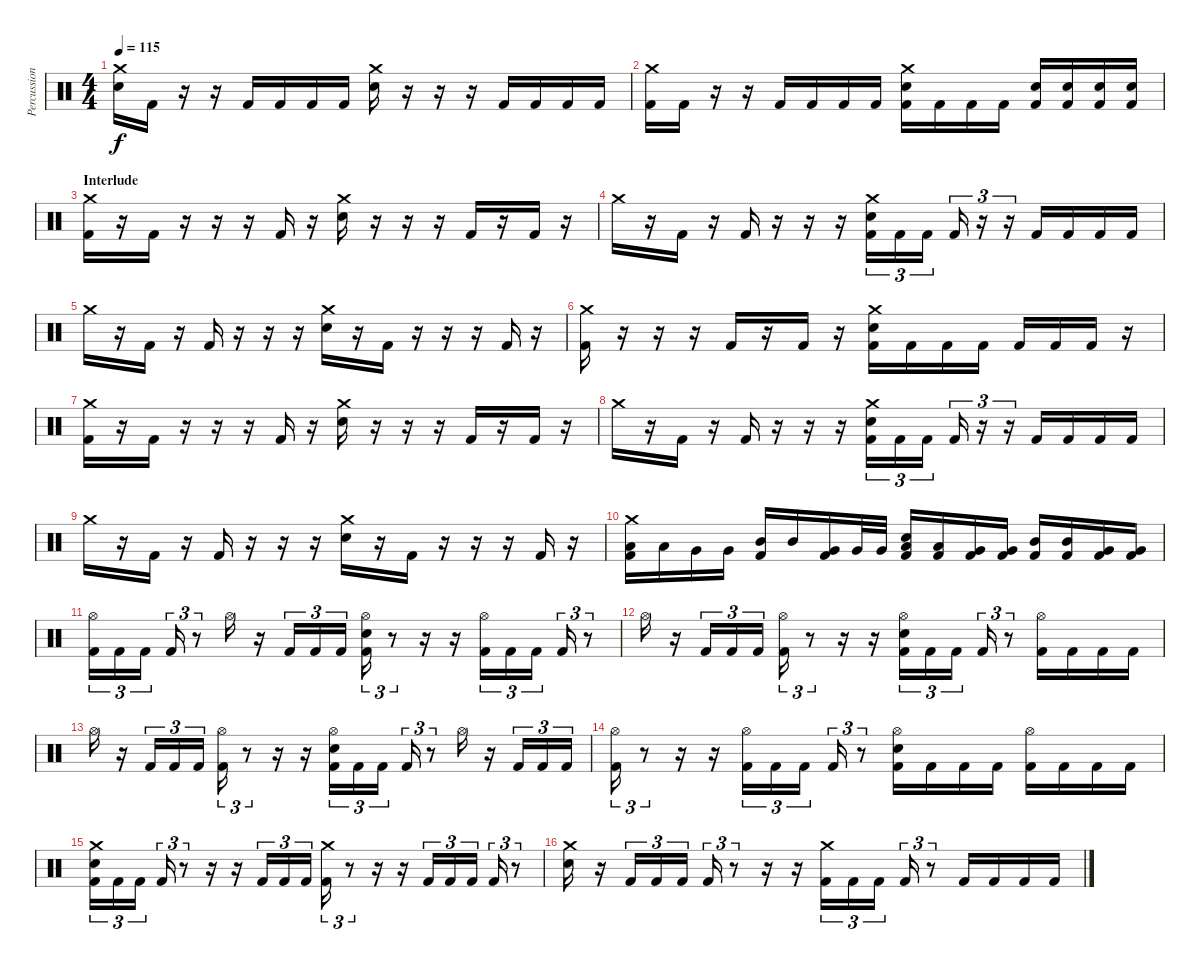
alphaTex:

\track ("Percussion" "Percussion") {instrument percussion}
\staff {score}
\articulation defaults
\ts (4 4)
\tempo 115
\clef neutral
\ks c
("Crash medium (hit)" "Electric Snare (hit)").16{dy f} "Kick (hit) 2".16 r.16 r.16 "Kick (hit) 2".16 "Kick (hit) 2".16 "Kick (hit) 2".16 "Kick (hit) 2".16 ("Crash medium (hit)" "Electric Snare (hit)").16 r.16 r.16 r.16 "Kick (hit) 2".16 "Kick (hit) 2".16 "Kick (hit) 2".16 "Kick (hit) 2".16 |
("Crash medium (hit)" "Kick (hit) 2").16 "Kick (hit) 2".16 r.16 r.16 "Kick (hit) 2".16 "Kick (hit) 2".16 "Kick (hit) 2".16 "Kick (hit) 2".16 ("Crash medium (hit)" "Electric Snare (hit)" "Kick (hit) 2").16 "Kick (hit) 2".16 "Kick (hit) 2".16 "Kick (hit) 2".16 ("Electric Snare (hit)" "Kick (hit) 2").16 ("Electric Snare (hit)" "Kick (hit) 2").16 ("Electric Snare (hit)" "Kick (hit) 2").16 ("Electric Snare (hit)" "Kick (hit) 2").16 |
\section ("" "Interlude")
("Crash medium (hit)" "Kick (hit) 2").16 r.16 "Kick (hit) 2".16 r.16 r.16 r.16 "Kick (hit) 2".16 r.16 ("Crash medium (hit)" "Electric Snare (hit)").16 r.16 r.16 r.16 "Kick (hit) 2".16 r.16 "Kick (hit) 2".16 r.16 |
"Crash medium (hit)".16 r.16 "Kick (hit) 2".16 r.16 "Kick (hit) 2".16 r.16 r.16 r.16 ("Crash medium (hit)" "Electric Snare (hit)" "Kick (hit) 2").16{tu (3 2)} "Kick (hit) 2".16{tu (3 2)} "Kick (hit) 2".16{tu (3 2)} "Kick (hit) 2".16{tu (3 2)} r.16{tu (3 2)} r.16{tu (3 2)} "Kick (hit) 2".16 "Kick (hit) 2".16 "Kick (hit) 2".16 "Kick (hit) 2".16 |
"Crash medium (hit)".16 r.16 "Kick (hit) 2".16 r.16 "Kick (hit) 2".16 r.16 r.16 r.16 ("Crash medium (hit)" "Electric Snare (hit)").16 r.16 "Kick (hit) 2".16 r.16 r.16 r.16 "Kick (hit) 2".16 r.16 |
("Crash medium (hit)" "Kick (hit) 2").16 r.16 r.16 r.16 "Kick (hit) 2".16 r.16 "Kick (hit) 2".16 r.16 ("Crash medium (hit)" "Electric Snare (hit)" "Kick (hit) 2").16 "Kick (hit) 2".16 "Kick (hit) 2".16 "Kick (hit) 2".16 "Kick (hit) 2".16 "Kick (hit) 2".16 "Kick (hit) 2".16 r.16 |
("Crash medium (hit)" "Kick (hit) 2").16 r.16 "Kick (hit) 2".16 r.16 r.16 r.16 "Kick (hit) 2".16 r.16 ("Crash medium (hit)" "Electric Snare (hit)").16 r.16 r.16 r.16 "Kick (hit) 2".16 r.16 "Kick (hit) 2".16 r.16 |
"Crash medium (hit)".16 r.16 "Kick (hit) 2".16 r.16 "Kick (hit) 2".16 r.16 r.16 r.16 ("Crash medium (hit)" "Electric Snare (hit)" "Kick (hit) 2").16{tu (3 2)} "Kick (hit) 2".16{tu (3 2)} "Kick (hit) 2".16{tu (3 2)} "Kick (hit) 2".16{tu (3 2)} r.16{tu (3 2)} r.16{tu (3 2)} "Kick (hit) 2".16 "Kick (hit) 2".16 "Kick (hit) 2".16 "Kick (hit) 2".16 |
"Crash medium (hit)".16 r.16 "Kick (hit) 2".16 r.16 "Kick (hit) 2".16 r.16 r.16 r.16 ("Crash medium (hit)" "Electric Snare (hit)").16 r.16 "Kick (hit) 2".16 r.16 r.16 r.16 "Kick (hit) 2".16 r.16 |
("Crash medium (hit)" "Low Tom (hit)" "Kick (hit) 2").16 "Low Tom (hit)".16 "Very Low Tom (hit)".16 "Very Low Tom (hit)".16 ("Mid Tom (hit)" "Kick (hit) 2").16 "Mid Tom (hit)".16 ("Very Low Tom (hit)" "Kick (hit) 2").16 "Very Low Tom (hit)".32 "Very Low Tom (hit)".32 ("Low Tom (hit)" "Electric Snare (hit)" "Kick (hit) 2").16 ("Low Tom (hit)" "Kick (hit) 2").16 ("Very Low Tom (hit)" "Kick (hit) 2").16 ("Very Low Tom (hit)" "Kick (hit) 2").16 ("Mid Tom (hit)" "Kick (hit) 2").16 ("Mid Tom (hit)" "Kick (hit) 2").16 ("Very Low Tom (hit)" "Kick (hit) 2").16 ("Very Low Tom (hit)" "Kick (hit) 2").16 |
("Hi-Hat (open)" "Kick (hit) 2").16{tu (3 2)} "Kick (hit) 2".16{tu (3 2)} "Kick (hit) 2".16{tu (3 2)} "Kick (hit) 2".16{tu (3 2)} r.8{tu (3 2)} "Hi-Hat (open)".16 r.16 "Kick (hit) 2".16{tu (3 2)} "Kick (hit) 2".16{tu (3 2)} "Kick (hit) 2".16{tu (3 2)} ("Hi-Hat (open)" "Electric Snare (hit)" "Kick (hit) 2").16{tu (3 2)} r.8{tu (3 2)} r.16 r.16 ("Hi-Hat (open)" "Kick (hit) 2").16{tu (3 2)} "Kick (hit) 2".16{tu (3 2)} "Kick (hit) 2".16{tu (3 2)} "Kick (hit) 2".16{tu (3 2)} r.8{tu (3 2)} |
"Hi-Hat (open)".16 r.16 "Kick (hit) 2".16{tu (3 2)} "Kick (hit) 2".16{tu (3 2)} "Kick (hit) 2".16{tu (3 2)} ("Hi-Hat (open)" "Kick (hit) 2").16{tu (3 2)} r.8{tu (3 2)} r.16 r.16 ("Hi-Hat (open)" "Electric Snare (hit)" "Kick (hit) 2").16{tu (3 2)} "Kick (hit) 2".16{tu (3 2)} "Kick (hit) 2".16{tu (3 2)} "Kick (hit) 2".16{tu (3 2)} r.8{tu (3 2)} ("Hi-Hat (open)" "Kick (hit) 2").16 "Kick (hit) 2".16 "Kick (hit) 2".16 "Kick (hit) 2".16 |
"Hi-Hat (open)".16 r.16 "Kick (hit) 2".16{tu (3 2)} "Kick (hit) 2".16{tu (3 2)} "Kick (hit) 2".16{tu (3 2)} ("Hi-Hat (open)" "Kick (hit) 2").16{tu (3 2)} r.8{tu (3 2)} r.16 r.16 ("Hi-Hat (open)" "Electric Snare (hit)" "Kick (hit) 2").16{tu (3 2)} "Kick (hit) 2".16{tu (3 2)} "Kick (hit) 2".16{tu (3 2)} "Kick (hit) 2".16{tu (3 2)} r.8{tu (3 2)} "Hi-Hat (open)".16 r.16 "Kick (hit) 2".16{tu (3 2)} "Kick (hit) 2".16{tu (3 2)} "Kick (hit) 2".16{tu (3 2)} |
("Hi-Hat (open)" "Kick (hit) 2").16{tu (3 2)} r.8{tu (3 2)} r.16 r.16 ("Hi-Hat (open)" "Kick (hit) 2").16{tu (3 2)} "Kick (hit) 2".16{tu (3 2)} "Kick (hit) 2".16{tu (3 2)} "Kick (hit) 2".16{tu (3 2)} r.8{tu (3 2)} ("Hi-Hat (open)" "Electric Snare (hit)" "Kick (hit) 2").16 "Kick (hit) 2".16 "Kick (hit) 2".16 "Kick (hit) 2".16 ("Hi-Hat (open)" "Kick (hit) 2").16 "Kick (hit) 2".16 "Kick (hit) 2".16 "Kick (hit) 2".16 |
("Crash medium (hit)" "Electric Snare (hit)" "Kick (hit) 2").16{tu (3 2)} "Kick (hit) 2".16{tu (3 2)} "Kick (hit) 2".16{tu (3 2)} "Kick (hit) 2".16{tu (3 2)} r.8{tu (3 2)} r.16 r.16 "Kick (hit) 2".16{tu (3 2)} "Kick (hit) 2".16{tu (3 2)} "Kick (hit) 2".16{tu (3 2)} ("Crash medium (hit)" "Kick (hit) 2").16{tu (3 2)} r.8{tu (3 2)} r.16 r.16 "Kick (hit) 2".16{tu (3 2)} "Kick (hit) 2".16{tu (3 2)} "Kick (hit) 2".16{tu (3 2)} "Kick (hit) 2".16{tu (3 2)} r.8{tu (3 2)} |
("Crash medium (hit)" "Electric Snare (hit)").16 r.16 "Kick (hit) 2".16{tu (3 2)} "Kick (hit) 2".16{tu (3 2)} "Kick (hit) 2".16{tu (3 2)} "Kick (hit) 2".16{tu (3 2)} r.8{tu (3 2)} r.16 r.16 ("Crash medium (hit)" "Kick (hit) 2").16{tu (3 2)} "Kick (hit) 2".16{tu (3 2)} "Kick (hit) 2".16{tu (3 2)} "Kick (hit) 2".16{tu (3 2)} r.8{tu (3 2)} "Kick (hit) 2".16 "Kick (hit) 2".16 "Kick (hit) 2".16 "Kick (hit) 2".16
